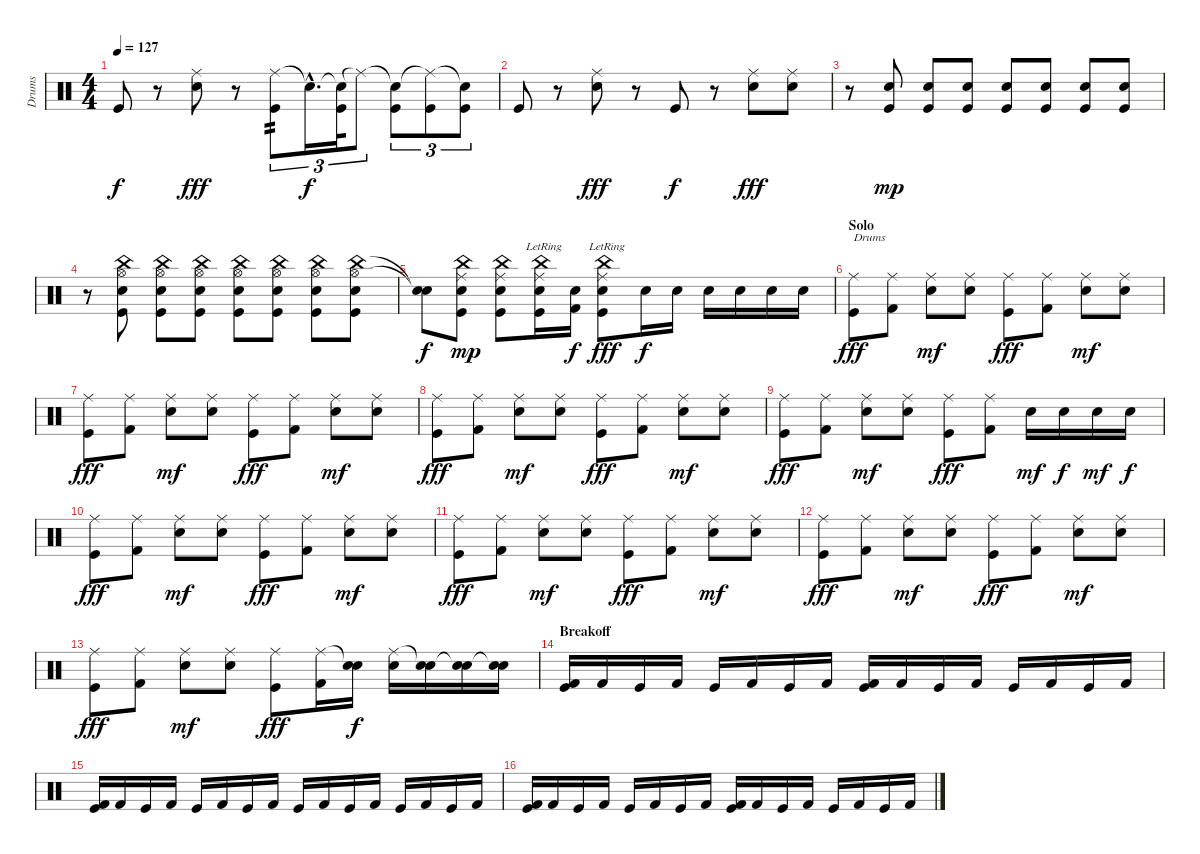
\track ("Drums" "Drums") {instrument percussion}
\staff {score}
\articulation defaults
\ts (4 4)
\tempo 127
\clef neutral
\ks c "Kick (hit)".8{dy f}
r.8 ("Ride (middle)" "Snare (hit) 2").8{dy fff} r.8 ("Ride (middle)" "Kick (hit)").8{tu (3 2) tp 2} "Snare (hit)"{hac t}.16{d tu (3 2) dy f} ("Snare (hit)"{t} "Kick (hit)").32{tu (3 2)} "Ride (middle)"{t}.8{tu (3 2)} ("Snare (hit)"{t} "Kick (hit)").8{tu (3 2)} ("Ride (middle)"{t} "Kick (hit)").8{tu (3 2)} ("Snare (hit)"{t} "Kick (hit)").8{tu (3 2)} |
"Kick (hit)".8 r.8 ("Ride (middle)" "Snare (hit) 2").8{dy fff} r.8 "Kick (hit)".8{dy f} r.8 ("Ride (middle)" "Snare (hit) 2").8{dy fff} ("Ride (middle)" "Snare (hit) 2").8 |
r.8 ("Kick (hit)" "Electric Snare (hit)").8{dy mp} ("Kick (hit)" "Electric Snare (hit)").8 ("Kick (hit)" "Electric Snare (hit)").8 ("Kick (hit)" "Electric Snare (hit)").8 ("Kick (hit)" "Electric Snare (hit)").8 ("Kick (hit)" "Electric Snare (hit)").8 ("Kick (hit)" "Electric Snare (hit)").8 |
r.8 ("Hi-Hat (open)" "China (hit)" "Kick (hit)" "Electric Snare (hit)").8 ("Hi-Hat (open)" "China (hit)" "Kick (hit)" "Electric Snare (hit)").8 ("Hi-Hat (open)" "China (hit)" "Kick (hit)" "Electric Snare (hit)").8 ("Hi-Hat (open)" "China (hit)" "Kick (hit)" "Electric Snare (hit)").8 ("Hi-Hat (open)" "China (hit)" "Kick (hit)" "Electric Snare (hit)").8 ("Hi-Hat (open)" "China (hit)" "Kick (hit)" "Electric Snare (hit)").8 ("Hi-Hat (open)" "China (hit)" "Kick (hit)" "Electric Snare (hit)").8 |
("Snare (hit)"{t} "Snare (hit)"{t}).8{dy f} ("Ride (middle)" "China (hit)" "Kick (hit)" "Electric Snare (hit)").8{dy mp} ("Ride (middle)" "China (hit)" "Kick (hit)" "Electric Snare (hit)").8 ("Ride (middle)"{lr} "China (hit)"{lr} "Kick (hit)" "Electric Snare (hit)").16 ("Kick (hit) 2" "Snare (hit) 2").16{dy f} ("Ride (middle)"{lr} "China (hit)"{lr} "Kick (hit)" "Electric Snare (hit)").8{dy fff} "Electric Snare (hit)".16{dy f} "Snare (hit) 2".16 "Electric Snare (hit)".16 "Snare (hit) 2".16 "Electric Snare (hit)".16 "Snare (hit) 2".16 |
\section ("" "Solo")
("Ride (middle)" "Kick (hit)").8{txt "Drums" dy fff} ("Ride (middle)" "Kick (hit) 2").8 ("Ride (middle)" "Electric Snare (hit)").8{dy mf} ("Ride (middle)" "Electric Snare (hit)").8 ("Ride (middle)" "Kick (hit)").8{dy fff} ("Ride (middle)" "Kick (hit) 2").8 ("Ride (middle)" "Electric Snare (hit)").8{dy mf} ("Ride (middle)" "Electric Snare (hit)").8 |
("Ride (middle)" "Kick (hit)").8{dy fff} ("Ride (middle)" "Kick (hit) 2").8 ("Ride (middle)" "Electric Snare (hit)").8{dy mf} ("Ride (middle)" "Electric Snare (hit)").8 ("Ride (middle)" "Kick (hit)").8{dy fff} ("Ride (middle)" "Kick (hit) 2").8 ("Ride (middle)" "Electric Snare (hit)").8{dy mf} ("Ride (middle)" "Electric Snare (hit)").8 |
("Ride (middle)" "Kick (hit)").8{dy fff} ("Ride (middle)" "Kick (hit) 2").8 ("Ride (middle)" "Electric Snare (hit)").8{dy mf} ("Ride (middle)" "Electric Snare (hit)").8 ("Ride (middle)" "Kick (hit)").8{dy fff} ("Ride (middle)" "Kick (hit) 2").8 ("Ride (middle)" "Electric Snare (hit)").8{dy mf} ("Ride (middle)" "Electric Snare (hit)").8 |
("Ride (middle)" "Kick (hit)").8{dy fff} ("Ride (middle)" "Kick (hit) 2").8 ("Ride (middle)" "Electric Snare (hit)").8{dy mf} ("Ride (middle)" "Electric Snare (hit)").8 ("Ride (middle)" "Kick (hit)").8{dy fff} ("Ride (middle)" "Kick (hit) 2").8 "Electric Snare (hit)".16{dy mf} "Snare (hit) 2".16{dy f} "Electric Snare (hit)".16{dy mf} "Snare (hit) 2".16{dy f} |
("Ride (middle)" "Kick (hit)").8{dy fff} ("Ride (middle)" "Kick (hit) 2").8 ("Ride (middle)" "Electric Snare (hit)").8{dy mf} ("Ride (middle)" "Electric Snare (hit)").8 ("Ride (middle)" "Kick (hit)").8{dy fff} ("Ride (middle)" "Kick (hit) 2").8 ("Ride (middle)" "Electric Snare (hit)").8{dy mf} ("Ride (middle)" "Electric Snare (hit)").8 |
("Ride (middle)" "Kick (hit)").8{dy fff} ("Ride (middle)" "Kick (hit) 2").8 ("Ride (middle)" "Electric Snare (hit)").8{dy mf} ("Ride (middle)" "Electric Snare (hit)").8 ("Ride (middle)" "Kick (hit)").8{dy fff} ("Ride (middle)" "Kick (hit) 2").8 ("Ride (middle)" "Electric Snare (hit)").8{dy mf} ("Ride (middle)" "Electric Snare (hit)").8 |
("Ride (middle)" "Kick (hit)").8{dy fff} ("Ride (middle)" "Kick (hit) 2").8 ("Ride (middle)" "Electric Snare (hit)").8{dy mf} ("Ride (middle)" "Electric Snare (hit)").8 ("Ride (middle)" "Kick (hit)").8{dy fff} ("Ride (middle)" "Kick (hit) 2").8 ("Ride (middle)" "Electric Snare (hit)").8{dy mf} ("Ride (middle)" "Electric Snare (hit)").8 |
("Ride (middle)" "Kick (hit)").8{dy fff} ("Ride (middle)" "Kick (hit) 2").8 ("Ride (middle)" "Electric Snare (hit)").8{dy mf} ("Ride (middle)" "Electric Snare (hit)").8 ("Ride (middle)" "Kick (hit)").8{dy fff} ("Ride (middle)" "Kick (hit) 2").16 ("Snare (hit)"{t} "Snare (hit) 2").16{dy f} ("Ride (middle)" "Electric Snare (hit)").16 ("Snare (hit)"{t} "Snare (hit) 2").16 ("Snare (hit)"{t} "Electric Snare (hit)").16 ("Snare (hit)"{t} "Snare (hit) 2").16 |
\section ("" "Breakoff")
("Kick (hit)" "Kick (hit) 2").16 "Kick (hit) 2".16 "Kick (hit)".16 "Kick (hit) 2".16 "Kick (hit)".16 "Kick (hit) 2".16 "Kick (hit)".16 "Kick (hit) 2".16 ("Kick (hit)" "Kick (hit) 2").16 "Kick (hit) 2".16 "Kick (hit)".16 "Kick (hit) 2".16 "Kick (hit)".16 "Kick (hit) 2".16 "Kick (hit)".16 "Kick (hit) 2".16 |
("Kick (hit)" "Kick (hit) 2").16 "Kick (hit) 2".16 "Kick (hit)".16 "Kick (hit) 2".16 "Kick (hit)".16 "Kick (hit) 2".16 "Kick (hit)".16 "Kick (hit) 2".16 "Kick (hit)".16 "Kick (hit) 2".16 "Kick (hit)".16 "Kick (hit) 2".16 "Kick (hit)".16 "Kick (hit) 2".16 "Kick (hit)".16 "Kick (hit) 2".16 |
("Kick (hit)" "Kick (hit) 2").16 "Kick (hit) 2".16 "Kick (hit)".16 "Kick (hit) 2".16 "Kick (hit)".16 "Kick (hit) 2".16 "Kick (hit)".16 "Kick (hit) 2".16 ("Kick (hit)" "Kick (hit) 2").16 "Kick (hit) 2".16 "Kick (hit)".16 "Kick (hit) 2".16 "Kick (hit)".16 "Kick (hit) 2".16 "Kick (hit)".16 "Kick (hit) 2".16
